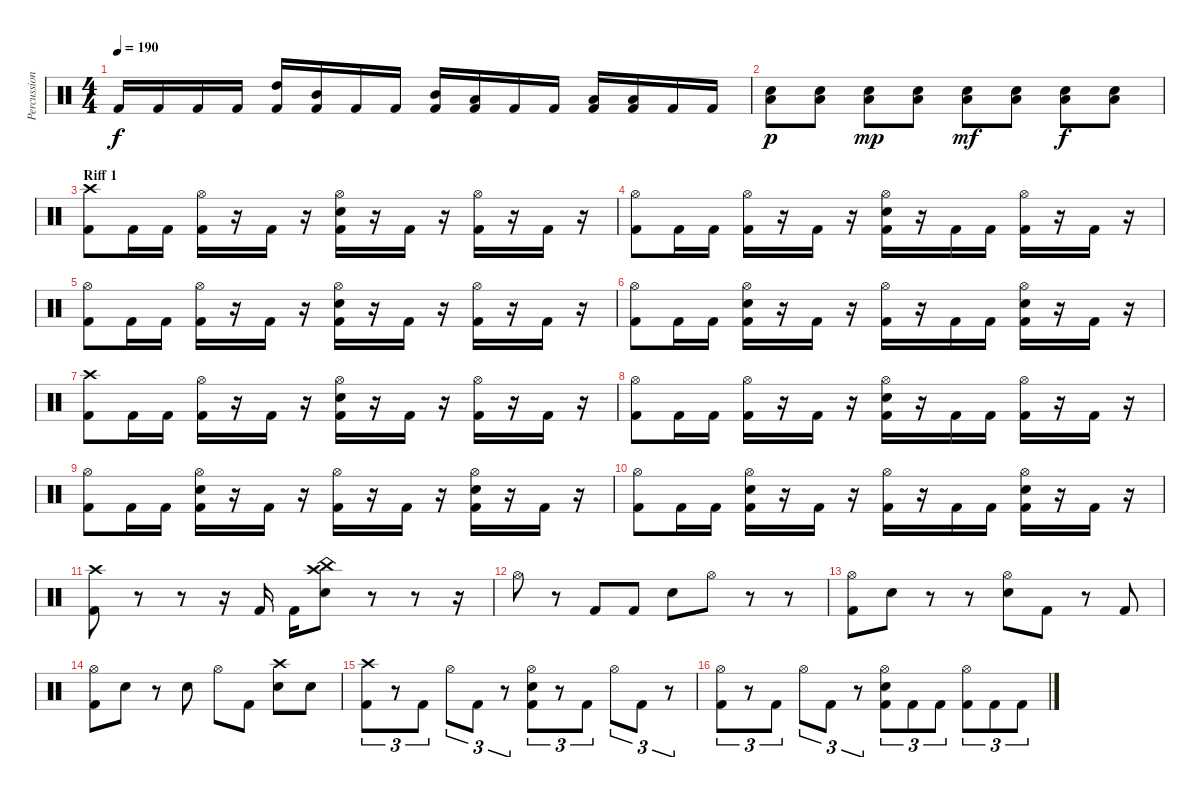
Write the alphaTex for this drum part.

\track ("Percussion" "Percussion") {instrument percussion}
\staff {score}
\articulation defaults
\ts (4 4)
\tempo 190
\clef neutral
\ks c "Kick (hit) 2".16{dy f} "Kick (hit) 2".16 "Kick (hit) 2".16 "Kick (hit) 2".16
("High Tom (hit)" "Kick (hit) 2").16 ("Mid Tom (hit)" "Kick (hit) 2").16 "Kick (hit) 2".16 "Kick (hit) 2".16 ("Mid Tom (hit)" "Kick (hit) 2").16 ("Low Tom (hit)" "Kick (hit) 2").16 "Kick (hit) 2".16 "Kick (hit) 2".16 ("Low Tom (hit)" "Kick (hit) 2").16 ("Low Floor Tom (hit)" "Kick (hit) 2").16 "Kick (hit) 2".16 "Kick (hit) 2".16 |
("Electric Snare (hit)" "Low Floor Tom (hit)").8{dy p} ("Electric Snare (hit)" "Low Floor Tom (hit)").8 ("Electric Snare (hit)" "Low Floor Tom (hit)").8{dy mp} ("Electric Snare (hit)" "Low Floor Tom (hit)").8 ("Electric Snare (hit)" "Low Floor Tom (hit)").8{dy mf} ("Electric Snare (hit)" "Low Floor Tom (hit)").8 ("Electric Snare (hit)" "Low Floor Tom (hit)").8{dy f} ("Electric Snare (hit)" "Low Floor Tom (hit)").8 |
\section ("" "Riff 1")
("Crash high (hit)" "Kick (hit) 2").8 "Kick (hit) 2".16 "Kick (hit) 2".16 ("Hi-Hat (open)" "Kick (hit) 2").16 r.16 "Kick (hit) 2".16 r.16 ("Hi-Hat (open)" "Electric Snare (hit)" "Kick (hit) 2").16 r.16 "Kick (hit) 2".16 r.16 ("Hi-Hat (open)" "Kick (hit) 2").16 r.16 "Kick (hit) 2".16 r.16 |
("Hi-Hat (open)" "Kick (hit) 2").8 "Kick (hit) 2".16 "Kick (hit) 2".16 ("Hi-Hat (open)" "Kick (hit) 2").16 r.16 "Kick (hit) 2".16 r.16 ("Hi-Hat (open)" "Electric Snare (hit)" "Kick (hit) 2").16 r.16 "Kick (hit) 2".16 "Kick (hit) 2".16 ("Hi-Hat (open)" "Kick (hit) 2").16 r.16 "Kick (hit) 2".16 r.16 |
("Hi-Hat (open)" "Kick (hit) 2").8 "Kick (hit) 2".16 "Kick (hit) 2".16 ("Hi-Hat (open)" "Kick (hit) 2").16 r.16 "Kick (hit) 2".16 r.16 ("Hi-Hat (open)" "Electric Snare (hit)" "Kick (hit) 2").16 r.16 "Kick (hit) 2".16 r.16 ("Hi-Hat (open)" "Kick (hit) 2").16 r.16 "Kick (hit) 2".16 r.16 |
("Hi-Hat (open)" "Kick (hit) 2").8 "Kick (hit) 2".16 "Kick (hit) 2".16 ("Hi-Hat (open)" "Electric Snare (hit)" "Kick (hit) 2").16 r.16 "Kick (hit) 2".16 r.16 ("Hi-Hat (open)" "Kick (hit) 2").16 r.16 "Kick (hit) 2".16 "Kick (hit) 2".16 ("Hi-Hat (open)" "Electric Snare (hit)" "Kick (hit) 2").16 r.16 "Kick (hit) 2".16 r.16 |
("Crash high (hit)" "Kick (hit) 2").8 "Kick (hit) 2".16 "Kick (hit) 2".16 ("Hi-Hat (open)" "Kick (hit) 2").16 r.16 "Kick (hit) 2".16 r.16 ("Hi-Hat (open)" "Electric Snare (hit)" "Kick (hit) 2").16 r.16 "Kick (hit) 2".16 r.16 ("Hi-Hat (open)" "Kick (hit) 2").16 r.16 "Kick (hit) 2".16 r.16 |
("Hi-Hat (open)" "Kick (hit) 2").8 "Kick (hit) 2".16 "Kick (hit) 2".16 ("Hi-Hat (open)" "Kick (hit) 2").16 r.16 "Kick (hit) 2".16 r.16 ("Hi-Hat (open)" "Electric Snare (hit)" "Kick (hit) 2").16 r.16 "Kick (hit) 2".16 "Kick (hit) 2".16 ("Hi-Hat (open)" "Kick (hit) 2").16 r.16 "Kick (hit) 2".16 r.16 |
("Hi-Hat (open)" "Kick (hit) 2").8 "Kick (hit) 2".16 "Kick (hit) 2".16 ("Hi-Hat (open)" "Electric Snare (hit)" "Kick (hit) 2").16 r.16 "Kick (hit) 2".16 r.16 ("Hi-Hat (open)" "Kick (hit) 2").16 r.16 "Kick (hit) 2".16 r.16 ("Hi-Hat (open)" "Electric Snare (hit)" "Kick (hit) 2").16 r.16 "Kick (hit) 2".16 r.16 |
("Hi-Hat (open)" "Kick (hit) 2").8 "Kick (hit) 2".16 "Kick (hit) 2".16 ("Hi-Hat (open)" "Electric Snare (hit)" "Kick (hit) 2").16 r.16 "Kick (hit) 2".16 r.16 ("Hi-Hat (open)" "Kick (hit) 2").16 r.16 "Kick (hit) 2".16 "Kick (hit) 2".16 ("Hi-Hat (open)" "Electric Snare (hit)" "Kick (hit) 2").16 r.16 "Kick (hit) 2".16 r.16 |
("Crash high (hit)" "Kick (hit) 2").8 r.8 r.8 r.16 "Kick (hit) 2".16 "Kick (hit) 2".16 ("China (hit)" "Crash high (hit)" "Electric Snare (hit)").8 r.8 r.8 r.16 |
"Hi-Hat (open)".8 r.8 "Kick (hit) 2".8 "Kick (hit) 2".8 "Electric Snare (hit)".8 "Hi-Hat (open)".8 r.8 r.8 |
("Hi-Hat (open)" "Kick (hit) 2").8 "Electric Snare (hit)".8 r.8 r.8 ("Hi-Hat (open)" "Electric Snare (hit)").8 "Kick (hit) 2".8 r.8 "Kick (hit) 2".8 |
("Hi-Hat (open)" "Kick (hit) 2").8 "Electric Snare (hit)".8 r.8 "Electric Snare (hit)".8 "Hi-Hat (open)".8 "Kick (hit) 2".8 ("Crash high (hit)" "Electric Snare (hit)").8 "Electric Snare (hit)".8 |
("Crash high (hit)" "Kick (hit) 2").8{tu (3 2)} r.8{tu (3 2)} "Kick (hit) 2".8{tu (3 2)} "Hi-Hat (open)".8{tu (3 2)} "Kick (hit) 2".8{tu (3 2)} r.8{tu (3 2)} ("Hi-Hat (open)" "Electric Snare (hit)" "Kick (hit) 2").8{tu (3 2)} r.8{tu (3 2)} "Kick (hit) 2".8{tu (3 2)} "Hi-Hat (open)".8{tu (3 2)} "Kick (hit) 2".8{tu (3 2)} r.8{tu (3 2)} |
("Hi-Hat (open)" "Kick (hit) 2").8{tu (3 2)} r.8{tu (3 2)} "Kick (hit) 2".8{tu (3 2)} "Hi-Hat (open)".8{tu (3 2)} "Kick (hit) 2".8{tu (3 2)} r.8{tu (3 2)} ("Hi-Hat (open)" "Electric Snare (hit)" "Kick (hit) 2").8{tu (3 2)} "Kick (hit) 2".8{tu (3 2)} "Kick (hit) 2".8{tu (3 2)} ("Hi-Hat (open)" "Kick (hit) 2").8{tu (3 2)} "Kick (hit) 2".8{tu (3 2)} "Kick (hit) 2".8{tu (3 2)}
